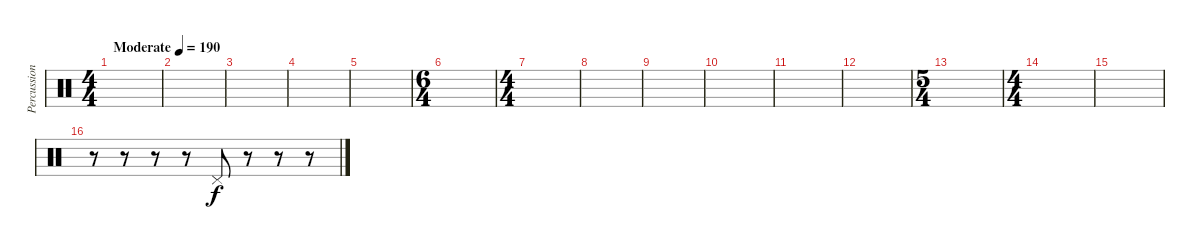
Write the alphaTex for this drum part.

\track ("Percussion" "Percussion") {instrument percussion}
\staff {score}
\articulation defaults
\ts (4 4)
\tempo (190 "Moderate")
\clef neutral
\ks c
|
|
|
|
|
\ts (6 4)
|
\ts (4 4)
|
|
|
|
|
|
\ts (5 4)
|
\ts (4 4)
|
|
r.8 r.8 r.8 r.8 "Pedal Hi-Hat (hit)".8 r.8 r.8 r.8
